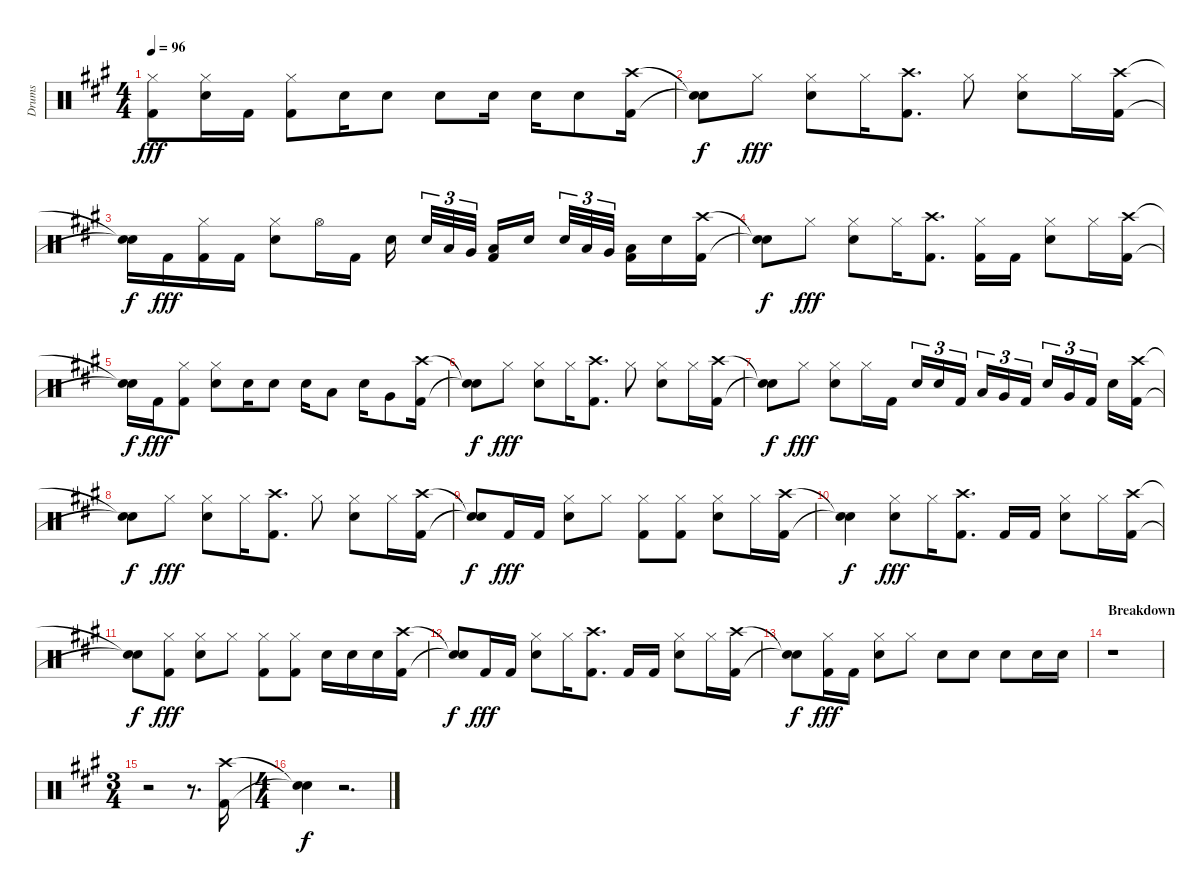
\track ("Drums" "Drums") {instrument percussion}
\staff {score}
\articulation defaults
\ts (4 4)
\tempo 96
\clef neutral
\ks a
("Kick (hit) 2" "Hi-Hat (closed)").8{dy fff} ("Electric Snare (hit)" "Hi-Hat (closed)").16 "Kick (hit) 2".16 ("Kick (hit) 2" "Hi-Hat (closed)").8 "Electric Snare (hit)".16 "Electric Snare (hit)".8 "Electric Snare (hit)".8 "Electric Snare (hit)".16 "Electric Snare (hit)".16 "Electric Snare (hit)".8 ("Crash high (hit)" "Kick (hit) 2").16 |
("Snare (hit)"{t} "Snare (hit)"{t}).8{dy f} "Hi-Hat (closed)".8{dy fff} ("Electric Snare (hit)" "Hi-Hat (closed)").8 "Hi-Hat (closed)".16 ("Kick (hit) 2" "Crash high (hit)").8{d} "Hi-Hat (closed)".8 ("Electric Snare (hit)" "Hi-Hat (closed)").8 "Hi-Hat (closed)".16 ("Kick (hit) 2" "Crash high (hit)").16 |
("Snare (hit)"{t} "Snare (hit)"{t}).16{dy f} "Kick (hit) 2".16{dy fff} ("Hi-Hat (closed)" "Kick (hit) 2").16 "Kick (hit) 2".16 ("Electric Snare (hit)" "Hi-Hat (closed)").8 "Hi-Hat (open)".16 "Kick (hit) 2".16 "Electric Snare (hit)".16 "Electric Snare (hit)".32{tu (3 2)} "Low Tom (hit)".32{tu (3 2)} "Very Low Tom (hit)".32{tu (3 2)} ("Kick (hit) 2" "Low Tom (hit)").16 "Electric Snare (hit)".16 "Electric Snare (hit)".32{tu (3 2)} "Low Tom (hit)".32{tu (3 2)} "Very Low Tom (hit)".32{tu (3 2)} ("Low Tom (hit)" "Kick (hit) 2").16 "Electric Snare (hit)".16 ("Crash high (hit)" "Kick (hit) 2").16 |
("Snare (hit)"{t} "Snare (hit)"{t}).8{dy f} "Hi-Hat (closed)".8{dy fff} ("Electric Snare (hit)" "Hi-Hat (closed)").8 "Hi-Hat (closed)".16 ("Kick (hit) 2" "Crash high (hit)").8{d} ("Kick (hit) 2" "Hi-Hat (closed)").16 "Kick (hit) 2".16 ("Electric Snare (hit)" "Hi-Hat (closed)").8 "Hi-Hat (closed)".16 ("Kick (hit) 2" "Crash high (hit)").16 |
("Snare (hit)"{t} "Snare (hit)"{t}).16{dy f} "Kick (hit) 2".16{dy fff} ("Hi-Hat (closed)" "Kick (hit) 2").8 ("Hi-Hat (closed)" "Electric Snare (hit)").8 "Electric Snare (hit)".16 "Electric Snare (hit)".8 "Electric Snare (hit)".16 "Low Tom (hit)".8 "Electric Snare (hit)".16 "Very Low Tom (hit)".8 ("Crash high (hit)" "Kick (hit) 2").16 |
("Snare (hit)"{t} "Snare (hit)"{t}).8{dy f} "Hi-Hat (closed)".8{dy fff} ("Electric Snare (hit)" "Hi-Hat (closed)").8 "Hi-Hat (closed)".16 ("Crash high (hit)" "Kick (hit) 2").8{d} "Hi-Hat (closed)".8 ("Electric Snare (hit)" "Hi-Hat (closed)").8 "Hi-Hat (closed)".16 ("Kick (hit) 2" "Crash high (hit)").16 |
("Snare (hit)"{t} "Snare (hit)"{t}).8{dy f} "Hi-Hat (closed)".8{dy fff} ("Electric Snare (hit)" "Hi-Hat (closed)").8 "Hi-Hat (closed)".16 "Kick (hit) 2".16 "Electric Snare (hit)".16{tu (3 2)} "Electric Snare (hit)".16{tu (3 2)} "Kick (hit) 2".16{tu (3 2)} "Low Floor Tom (hit)".16{tu (3 2)} "Very Low Tom (hit)".16{tu (3 2)} "Kick (hit) 2".16{tu (3 2)} "Electric Snare (hit)".16{tu (3 2)} "Very Low Tom (hit)".16{tu (3 2)} "Kick (hit) 2".16{tu (3 2)} "Electric Snare (hit)".16 ("Crash high (hit)" "Kick (hit) 2").16 |
("Snare (hit)"{t} "Snare (hit)"{t}).8{dy f} "Hi-Hat (closed)".8{dy fff} ("Electric Snare (hit)" "Hi-Hat (closed)").8 "Hi-Hat (closed)".16 ("Crash high (hit)" "Kick (hit) 2").8{d} "Hi-Hat (closed)".8 ("Electric Snare (hit)" "Hi-Hat (closed)").8 "Hi-Hat (closed)".16 ("Kick (hit) 2" "Crash high (hit)").16 |
("Snare (hit)"{t} "Snare (hit)"{t}).8{dy f} "Kick (hit) 2".16{dy fff} "Kick (hit) 2".16 ("Electric Snare (hit)" "Hi-Hat (closed)").8 "Hi-Hat (closed)".8 ("Kick (hit) 2" "Hi-Hat (closed)").8 ("Kick (hit) 2" "Hi-Hat (closed)").8 ("Electric Snare (hit)" "Hi-Hat (closed)").8 "Hi-Hat (closed)".16 ("Kick (hit) 2" "Crash high (hit)").16 |
("Snare (hit)"{t} "Snare (hit)"{t}).4{dy f} ("Electric Snare (hit)" "Hi-Hat (closed)").8{dy fff} "Hi-Hat (closed)".16 ("Kick (hit) 2" "Crash high (hit)").8{d} "Kick (hit) 2".16 "Kick (hit) 2".16 ("Electric Snare (hit)" "Hi-Hat (closed)").8 "Hi-Hat (closed)".16 ("Kick (hit) 2" "Crash high (hit)").16 |
("Snare (hit)"{t} "Snare (hit)"{t}).8{dy f} ("Kick (hit) 2" "Hi-Hat (closed)").8{dy fff} ("Electric Snare (hit)" "Hi-Hat (closed)").8 "Hi-Hat (closed)".8 ("Kick (hit) 2" "Hi-Hat (closed)").8 ("Kick (hit) 2" "Hi-Hat (closed)").8 "Electric Snare (hit)".16 "Electric Snare (hit)".16 "Electric Snare (hit)".16 ("Kick (hit) 2" "Crash high (hit)").16 |
("Snare (hit)"{t} "Snare (hit)"{t}).8{dy f} "Kick (hit) 2".16{dy fff} "Kick (hit) 2".16 ("Electric Snare (hit)" "Hi-Hat (closed)").8 "Hi-Hat (closed)".16 ("Kick (hit) 2" "Crash high (hit)").8{d} "Kick (hit) 2".16 "Kick (hit) 2".16 ("Electric Snare (hit)" "Hi-Hat (closed)").8 "Hi-Hat (closed)".16 ("Kick (hit) 2" "Crash high (hit)").16 |
("Snare (hit)"{t} "Snare (hit)"{t}).8{dy f} ("Kick (hit) 2" "Hi-Hat (closed)").16{dy fff} "Kick (hit) 2".16 ("Electric Snare (hit)" "Hi-Hat (closed)").8 "Hi-Hat (closed)".8 "Electric Snare (hit)".8 "Electric Snare (hit)".8 "Electric Snare (hit)".8 "Electric Snare (hit)".16 "Electric Snare (hit)".16 |
\section ("" "Breakdown")
r.1 |
\ts (3 4)
r.2 r.8{d} ("Crash high (hit)" "Kick (hit) 2").16 |
\ts (4 4)
("Snare (hit)"{t} "Snare (hit)"{t}).4{dy f} r.2{d}
